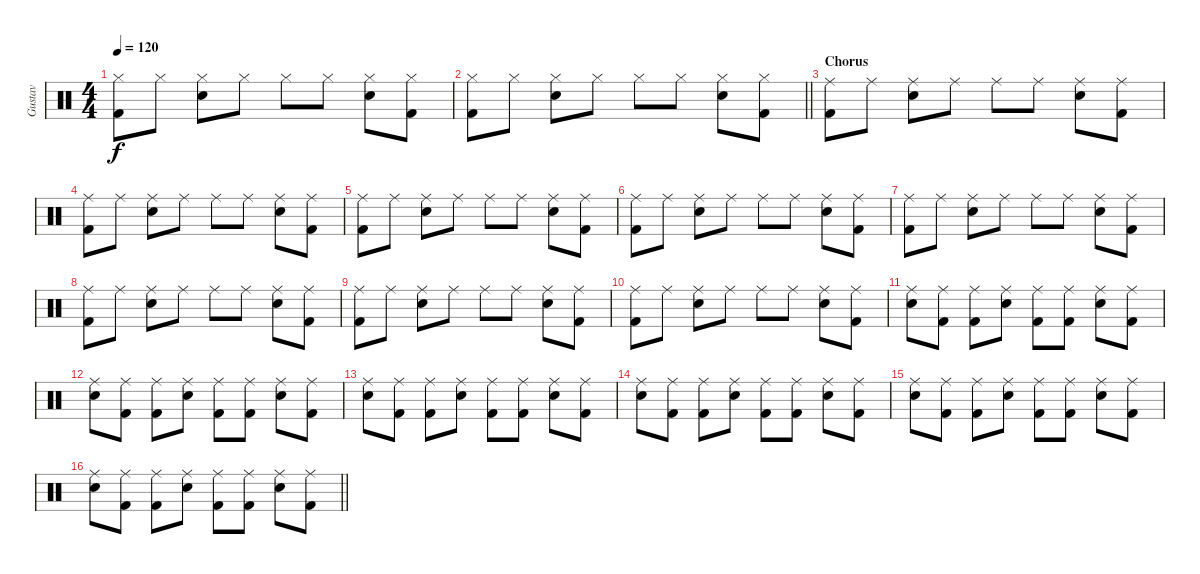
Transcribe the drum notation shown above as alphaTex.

\track ("Gustav" "Gustav") {instrument percussion}
\staff {score}
\articulation defaults
\ts (4 4)
\tempo 120
\clef neutral
\ks c
("Kick (hit) 2" "Hi-Hat (closed)").8{dy f} "Hi-Hat (closed)".8 ("Hi-Hat (closed)" "Snare (hit) 2").8 "Hi-Hat (closed)".8 "Hi-Hat (closed)".8 "Hi-Hat (closed)".8 ("Snare (hit) 2" "Hi-Hat (closed)").8 ("Hi-Hat (closed)" "Kick (hit) 2").8 |
\barLineRight lightlight
("Kick (hit) 2" "Hi-Hat (closed)").8 "Hi-Hat (closed)".8 ("Hi-Hat (closed)" "Snare (hit) 2").8 "Hi-Hat (closed)".8 "Hi-Hat (closed)".8 "Hi-Hat (closed)".8 ("Snare (hit) 2" "Hi-Hat (closed)").8 ("Hi-Hat (closed)" "Kick (hit) 2").8 |
\section ("" "Chorus")
("Kick (hit) 2" "Ride (middle)").8 "Ride (middle)".8 ("Ride (middle)" "Snare (hit) 2").8 "Ride (middle)".8 "Ride (middle)".8 "Ride (middle)".8 ("Snare (hit) 2" "Ride (middle)").8 ("Ride (middle)" "Kick (hit) 2").8 |
("Kick (hit) 2" "Ride (middle)").8 "Ride (middle)".8 ("Ride (middle)" "Snare (hit) 2").8 "Ride (middle)".8 "Ride (middle)".8 "Ride (middle)".8 ("Snare (hit) 2" "Ride (middle)").8 ("Ride (middle)" "Kick (hit) 2").8 |
("Kick (hit) 2" "Ride (middle)").8 "Ride (middle)".8 ("Ride (middle)" "Snare (hit) 2").8 "Ride (middle)".8 "Ride (middle)".8 "Ride (middle)".8 ("Snare (hit) 2" "Ride (middle)").8 ("Ride (middle)" "Kick (hit) 2").8 |
("Kick (hit) 2" "Ride (middle)").8 "Ride (middle)".8 ("Ride (middle)" "Snare (hit) 2").8 "Ride (middle)".8 "Ride (middle)".8 "Ride (middle)".8 ("Snare (hit) 2" "Ride (middle)").8 ("Ride (middle)" "Kick (hit) 2").8 |
("Kick (hit) 2" "Ride (middle)").8 "Ride (middle)".8 ("Ride (middle)" "Snare (hit) 2").8 "Ride (middle)".8 "Ride (middle)".8 "Ride (middle)".8 ("Snare (hit) 2" "Ride (middle)").8 ("Ride (middle)" "Kick (hit) 2").8 |
("Kick (hit) 2" "Ride (middle)").8 "Ride (middle)".8 ("Ride (middle)" "Snare (hit) 2").8 "Ride (middle)".8 "Ride (middle)".8 "Ride (middle)".8 ("Snare (hit) 2" "Ride (middle)").8 ("Ride (middle)" "Kick (hit) 2").8 |
("Kick (hit) 2" "Ride (middle)").8 "Ride (middle)".8 ("Ride (middle)" "Snare (hit) 2").8 "Ride (middle)".8 "Ride (middle)".8 "Ride (middle)".8 ("Snare (hit) 2" "Ride (middle)").8 ("Ride (middle)" "Kick (hit) 2").8 |
("Kick (hit) 2" "Ride (middle)").8 "Ride (middle)".8 ("Ride (middle)" "Snare (hit) 2").8 "Ride (middle)".8 "Ride (middle)".8 "Ride (middle)".8 ("Snare (hit) 2" "Ride (middle)").8 ("Ride (middle)" "Kick (hit) 2").8 |
("Snare (hit) 2" "Ride (middle)").8 ("Kick (hit) 2" "Ride (middle)").8 ("Ride (middle)" "Kick (hit) 2").8 ("Snare (hit) 2" "Ride (middle)").8 ("Kick (hit) 2" "Ride (middle)").8 ("Kick (hit) 2" "Ride (middle)").8 ("Snare (hit) 2" "Ride (middle)").8 ("Ride (middle)" "Kick (hit) 2").8 |
("Snare (hit) 2" "Ride (middle)").8 ("Kick (hit) 2" "Ride (middle)").8 ("Ride (middle)" "Kick (hit) 2").8 ("Snare (hit) 2" "Ride (middle)").8 ("Kick (hit) 2" "Ride (middle)").8 ("Kick (hit) 2" "Ride (middle)").8 ("Snare (hit) 2" "Ride (middle)").8 ("Ride (middle)" "Kick (hit) 2").8 |
("Snare (hit) 2" "Ride (middle)").8 ("Kick (hit) 2" "Ride (middle)").8 ("Ride (middle)" "Kick (hit) 2").8 ("Snare (hit) 2" "Ride (middle)").8 ("Kick (hit) 2" "Ride (middle)").8 ("Kick (hit) 2" "Ride (middle)").8 ("Snare (hit) 2" "Ride (middle)").8 ("Ride (middle)" "Kick (hit) 2").8 |
("Snare (hit) 2" "Ride (middle)").8 ("Kick (hit) 2" "Ride (middle)").8 ("Ride (middle)" "Kick (hit) 2").8 ("Snare (hit) 2" "Ride (middle)").8 ("Kick (hit) 2" "Ride (middle)").8 ("Kick (hit) 2" "Ride (middle)").8 ("Snare (hit) 2" "Ride (middle)").8 ("Ride (middle)" "Kick (hit) 2").8 |
("Snare (hit) 2" "Ride (middle)").8 ("Kick (hit) 2" "Ride (middle)").8 ("Ride (middle)" "Kick (hit) 2").8 ("Snare (hit) 2" "Ride (middle)").8 ("Kick (hit) 2" "Ride (middle)").8 ("Kick (hit) 2" "Ride (middle)").8 ("Snare (hit) 2" "Ride (middle)").8 ("Ride (middle)" "Kick (hit) 2").8 |
\barLineRight lightlight
("Snare (hit) 2" "Ride (middle)").8 ("Kick (hit) 2" "Ride (middle)").8 ("Ride (middle)" "Kick (hit) 2").8 ("Snare (hit) 2" "Ride (middle)").8 ("Kick (hit) 2" "Ride (middle)").8 ("Kick (hit) 2" "Ride (middle)").8 ("Snare (hit) 2" "Ride (middle)").8 ("Ride (middle)" "Kick (hit) 2").8
